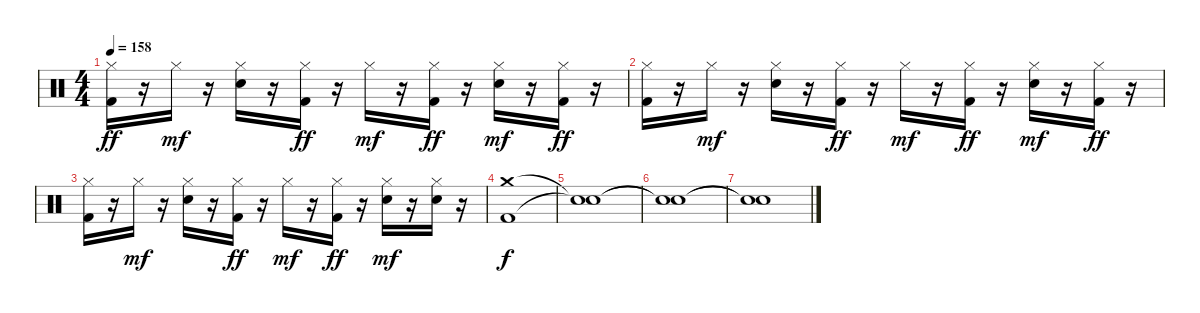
\track ("   " "   ") {instrument percussion}
\staff
\articulation defaults
\ts (4 4)
\tempo 158
\clef neutral
\ks c
("Hi-Hat (closed)" "Kick (hit) 2").16{dy ff} r.16 "Hi-Hat (closed)".16{dy mf} r.16 ("Hi-Hat (closed)" "Electric Snare (hit)").16 r.16 ("Hi-Hat (closed)" "Kick (hit) 2").16{dy ff} r.16 "Hi-Hat (closed)".16{dy mf} r.16 ("Hi-Hat (closed)" "Kick (hit) 2").16{dy ff} r.16 ("Hi-Hat (closed)" "Electric Snare (hit)").16{dy mf} r.16 ("Hi-Hat (closed)" "Kick (hit) 2").16{dy ff} r.16 |
("Hi-Hat (closed)" "Kick (hit) 2").16 r.16 "Hi-Hat (closed)".16{dy mf} r.16 ("Hi-Hat (closed)" "Electric Snare (hit)").16 r.16 ("Hi-Hat (closed)" "Kick (hit) 2").16{dy ff} r.16 "Hi-Hat (closed)".16{dy mf} r.16 ("Hi-Hat (closed)" "Kick (hit) 2").16{dy ff} r.16 ("Hi-Hat (closed)" "Electric Snare (hit)").16{dy mf} r.16 ("Hi-Hat (closed)" "Kick (hit) 2").16{dy ff} r.16 |
("Hi-Hat (closed)" "Kick (hit) 2").16 r.16 "Hi-Hat (closed)".16{dy mf} r.16 ("Hi-Hat (closed)" "Electric Snare (hit)").16 r.16 ("Hi-Hat (closed)" "Kick (hit) 2").16{dy ff} r.16 "Hi-Hat (closed)".16{dy mf} r.16 ("Hi-Hat (closed)" "Kick (hit) 2").16{dy ff} r.16 ("Hi-Hat (closed)" "Electric Snare (hit)").16{dy mf} r.16 ("Hi-Hat (closed)" "Electric Snare (hit)").16 r.16 |
("Crash medium (hit)" "Kick (hit) 2").1{dy f} |
("Snare (hit)"{t} "Snare (hit)"{t}).1 |
("Snare (hit)"{t} "Snare (hit)"{t}).1 |
("Snare (hit)"{t} "Snare (hit)"{t}).1
